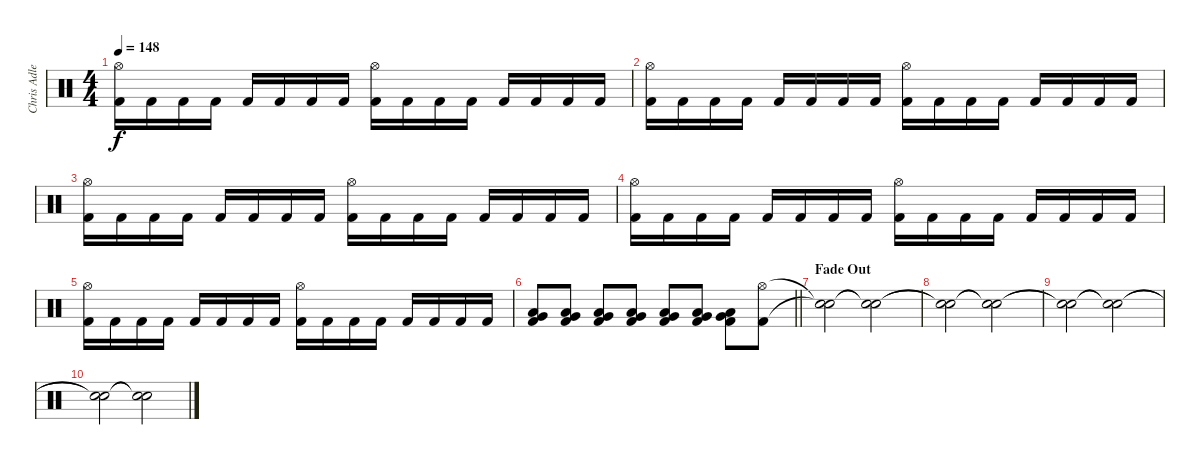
\track ("Chris Adler (Drums)" "Chris Adle") {instrument percussion}
\staff {score}
\articulation defaults
\ts (4 4)
\tempo 148
\clef neutral
\ks c
("Hi-Hat (open)" "Kick (hit) 2").16{dy f} "Kick (hit) 2".16 "Kick (hit) 2".16 "Kick (hit) 2".16 "Kick (hit) 2".16 "Kick (hit) 2".16 "Kick (hit) 2".16 "Kick (hit) 2".16 ("Hi-Hat (open)" "Kick (hit) 2").16 "Kick (hit) 2".16 "Kick (hit) 2".16 "Kick (hit) 2".16 "Kick (hit) 2".16 "Kick (hit) 2".16 "Kick (hit) 2".16 "Kick (hit) 2".16 |
("Hi-Hat (open)" "Kick (hit) 2").16 "Kick (hit) 2".16 "Kick (hit) 2".16 "Kick (hit) 2".16 "Kick (hit) 2".16 "Kick (hit) 2".16 "Kick (hit) 2".16 "Kick (hit) 2".16 ("Hi-Hat (open)" "Kick (hit) 2").16 "Kick (hit) 2".16 "Kick (hit) 2".16 "Kick (hit) 2".16 "Kick (hit) 2".16 "Kick (hit) 2".16 "Kick (hit) 2".16 "Kick (hit) 2".16 |
("Hi-Hat (open)" "Kick (hit) 2").16 "Kick (hit) 2".16 "Kick (hit) 2".16 "Kick (hit) 2".16 "Kick (hit) 2".16 "Kick (hit) 2".16 "Kick (hit) 2".16 "Kick (hit) 2".16 ("Hi-Hat (open)" "Kick (hit) 2").16 "Kick (hit) 2".16 "Kick (hit) 2".16 "Kick (hit) 2".16 "Kick (hit) 2".16 "Kick (hit) 2".16 "Kick (hit) 2".16 "Kick (hit) 2".16 |
("Hi-Hat (open)" "Kick (hit) 2").16 "Kick (hit) 2".16 "Kick (hit) 2".16 "Kick (hit) 2".16 "Kick (hit) 2".16 "Kick (hit) 2".16 "Kick (hit) 2".16 "Kick (hit) 2".16 ("Hi-Hat (open)" "Kick (hit) 2").16 "Kick (hit) 2".16 "Kick (hit) 2".16 "Kick (hit) 2".16 "Kick (hit) 2".16 "Kick (hit) 2".16 "Kick (hit) 2".16 "Kick (hit) 2".16 |
("Hi-Hat (open)" "Kick (hit) 2").16 "Kick (hit) 2".16 "Kick (hit) 2".16 "Kick (hit) 2".16 "Kick (hit) 2".16 "Kick (hit) 2".16 "Kick (hit) 2".16 "Kick (hit) 2".16 ("Hi-Hat (open)" "Kick (hit) 2").16 "Kick (hit) 2".16 "Kick (hit) 2".16 "Kick (hit) 2".16 "Kick (hit) 2".16 "Kick (hit) 2".16 "Kick (hit) 2".16 "Kick (hit) 2".16 |
\barLineRight lightlight
("Very Low Tom (hit)" "Low Floor Tom (hit)" "Kick (hit) 2").8 ("Very Low Tom (hit)" "Low Floor Tom (hit)" "Kick (hit) 2").8 ("Very Low Tom (hit)" "Low Floor Tom (hit)" "Kick (hit) 2").8 ("Very Low Tom (hit)" "Low Floor Tom (hit)" "Kick (hit) 2").8 ("Very Low Tom (hit)" "Low Floor Tom (hit)" "Kick (hit) 2").8 ("Very Low Tom (hit)" "Low Floor Tom (hit)" "Kick (hit) 2").8 ("Very Low Tom (hit)" "Low Floor Tom (hit)" "Kick (hit) 2").8 ("Hi-Hat (open)" "Kick (hit) 2").8 |
\section ("" "Fade Out")
("Snare (hit)"{t} "Snare (hit)"{t}).2 ("Snare (hit)"{t} "Snare (hit)"{t}).2 |
("Snare (hit)"{t} "Snare (hit)"{t}).2 ("Snare (hit)"{t} "Snare (hit)"{t}).2 |
("Snare (hit)"{t} "Snare (hit)"{t}).2 ("Snare (hit)"{t} "Snare (hit)"{t}).2 |
("Snare (hit)"{t} "Snare (hit)"{t}).2 ("Snare (hit)"{t} "Snare (hit)"{t}).2
